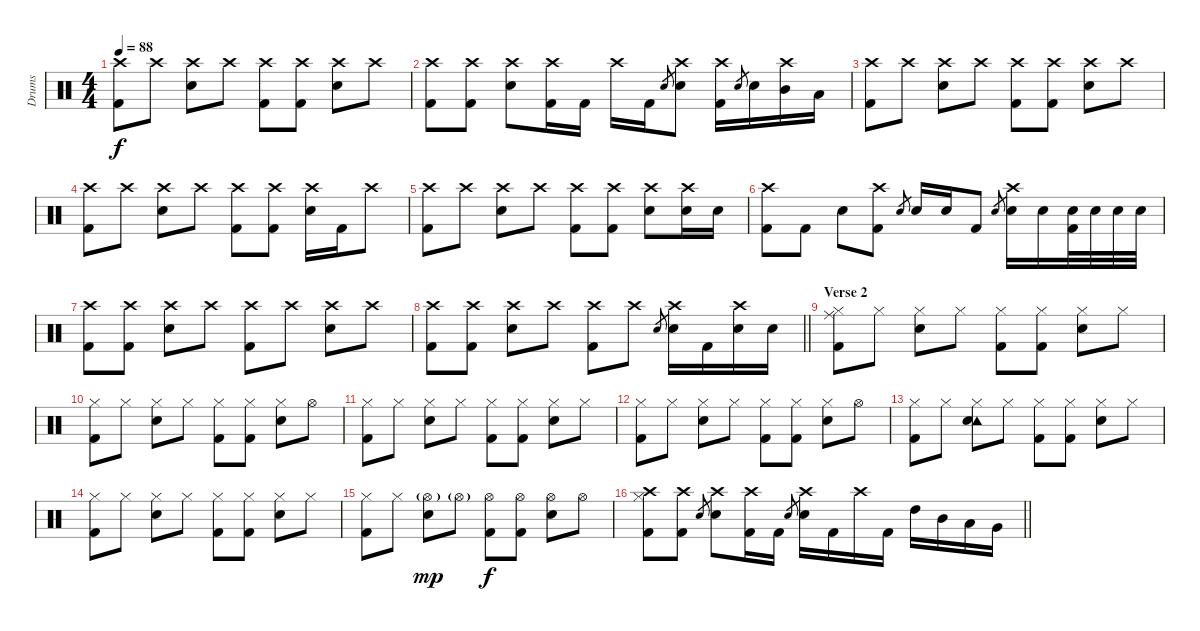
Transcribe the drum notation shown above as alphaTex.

\track ("Drums" "Drums") {instrument percussion}
\staff {score}
\articulation defaults
\ts (4 4)
\tempo 88
\clef neutral
\ks c
("Crash high (hit)" "Kick (hit) 2").8{dy f} "Crash high (hit)".8 ("Crash high (hit)" "Electric Snare (hit)").8 "Crash high (hit)".8 ("Crash high (hit)" "Kick (hit) 2").8 ("Crash high (hit)" "Kick (hit) 2").8 ("Crash high (hit)" "Electric Snare (hit)").8 "Crash high (hit)".8 |
("Crash high (hit)" "Kick (hit) 2").8 ("Crash high (hit)" "Kick (hit) 2").8 ("Crash high (hit)" "Electric Snare (hit)").8 ("Crash high (hit)" "Kick (hit) 2").16 "Kick (hit) 2".16 "Crash high (hit)".16 "Kick (hit) 2".16 "Electric Snare (hit)".8{gr} ("Crash high (hit)" "Electric Snare (hit)").8 ("Crash high (hit)" "Kick (hit) 2").16 "Electric Snare (hit)".8{gr} "Electric Snare (hit)".16 ("Crash high (hit)" "Mid Tom (hit)").16 "Low Tom (hit)".16 |
("Crash high (hit)" "Kick (hit) 2").8 "Crash high (hit)".8 ("Crash high (hit)" "Electric Snare (hit)").8 "Crash high (hit)".8 ("Crash high (hit)" "Kick (hit) 2").8 ("Crash high (hit)" "Kick (hit) 2").8 ("Crash high (hit)" "Electric Snare (hit)").8 "Crash high (hit)".8 |
("Crash high (hit)" "Kick (hit) 2").8 "Crash high (hit)".8 ("Crash high (hit)" "Electric Snare (hit)").8 "Crash high (hit)".8 ("Crash high (hit)" "Kick (hit) 2").8 ("Crash high (hit)" "Kick (hit) 2").8 ("Crash high (hit)" "Electric Snare (hit)").16 "Kick (hit) 2".16 "Crash high (hit)".8 |
("Crash high (hit)" "Kick (hit) 2").8 "Crash high (hit)".8 ("Crash high (hit)" "Electric Snare (hit)").8 "Crash high (hit)".8 ("Crash high (hit)" "Kick (hit) 2").8 ("Crash high (hit)" "Kick (hit) 2").8 ("Crash high (hit)" "Electric Snare (hit)").8 ("Crash high (hit)" "Electric Snare (hit)").16 "Electric Snare (hit)".16 |
("Crash high (hit)" "Kick (hit) 2").8 "Kick (hit) 2".8 "Electric Snare (hit)".8 ("Crash high (hit)" "Kick (hit) 2").8 "Electric Snare (hit)".8{gr} "Electric Snare (hit)".16 "Electric Snare (hit)".16 "Kick (hit) 2".8 "Electric Snare (hit)".8{gr} ("Crash high (hit)" "Electric Snare (hit)").16 "Electric Snare (hit)".16 ("Electric Snare (hit)" "Kick (hit) 2").32 "Electric Snare (hit)".32 "Electric Snare (hit)".32 "Electric Snare (hit)".32 |
("Crash high (hit)" "Kick (hit) 2").8 ("Crash high (hit)" "Kick (hit) 2").8 ("Crash high (hit)" "Electric Snare (hit)").8 "Crash high (hit)".8 ("Crash high (hit)" "Kick (hit) 2").8 "Crash high (hit)".8 ("Crash high (hit)" "Electric Snare (hit)").8 "Crash high (hit)".8 |
\barLineRight lightlight
("Crash high (hit)" "Kick (hit) 2").8 ("Crash high (hit)" "Kick (hit) 2").8 ("Crash high (hit)" "Electric Snare (hit)").8 "Crash high (hit)".8 ("Crash high (hit)" "Kick (hit) 2").8 "Crash high (hit)".8 "Electric Snare (hit)".8{gr} ("Crash high (hit)" "Electric Snare (hit)").16 "Kick (hit) 2".16 ("Crash high (hit)" "Electric Snare (hit)").16 "Electric Snare (hit)".16 |
\section ("" "Verse 2")
("Ride (middle)" "Hi-Hat (closed)" "Kick (hit) 2").8 "Hi-Hat (closed)".8 ("Hi-Hat (closed)" "Electric Snare (hit)").8 "Hi-Hat (closed)".8 ("Hi-Hat (closed)" "Kick (hit) 2").8 ("Hi-Hat (closed)" "Kick (hit) 2").8 ("Hi-Hat (closed)" "Electric Snare (hit)").8 "Hi-Hat (closed)".8 |
("Hi-Hat (closed)" "Kick (hit) 2").8 "Hi-Hat (closed)".8 ("Hi-Hat (closed)" "Electric Snare (hit)").8 "Hi-Hat (closed)".8 ("Hi-Hat (closed)" "Kick (hit) 2").8 ("Hi-Hat (closed)" "Kick (hit) 2").8 ("Hi-Hat (closed)" "Electric Snare (hit)").8 "Hi-Hat (open)".8 |
("Hi-Hat (closed)" "Kick (hit) 2").8 "Hi-Hat (closed)".8 ("Hi-Hat (closed)" "Electric Snare (hit)").8 "Hi-Hat (closed)".8 ("Hi-Hat (closed)" "Kick (hit) 2").8 ("Hi-Hat (closed)" "Kick (hit) 2").8 ("Hi-Hat (closed)" "Electric Snare (hit)").8 "Hi-Hat (closed)".8 |
("Hi-Hat (closed)" "Kick (hit) 2").8 "Hi-Hat (closed)".8 ("Hi-Hat (closed)" "Electric Snare (hit)").8 "Hi-Hat (closed)".8 ("Hi-Hat (closed)" "Kick (hit) 2").8 ("Hi-Hat (closed)" "Kick (hit) 2").8 ("Hi-Hat (closed)" "Electric Snare (hit)").8 "Hi-Hat (open)".8 |
("Hi-Hat (closed)" "Kick (hit) 2").8 "Hi-Hat (closed)".8 ("Tambourine (hit)" "Hi-Hat (closed)" "Electric Snare (hit)").8 "Hi-Hat (closed)".8 ("Hi-Hat (closed)" "Kick (hit) 2").8 ("Hi-Hat (closed)" "Kick (hit) 2").8 ("Hi-Hat (closed)" "Electric Snare (hit)").8 "Hi-Hat (closed)".8 |
("Hi-Hat (closed)" "Kick (hit) 2").8 "Hi-Hat (closed)".8 ("Hi-Hat (closed)" "Electric Snare (hit)").8 "Hi-Hat (closed)".8 ("Hi-Hat (closed)" "Kick (hit) 2").8 ("Hi-Hat (closed)" "Kick (hit) 2").8 ("Hi-Hat (closed)" "Electric Snare (hit)").8 "Hi-Hat (closed)".8 |
("Hi-Hat (closed)" "Kick (hit) 2").8 "Hi-Hat (closed)".8 ("Hi-Hat (open)"{g} "Electric Snare (hit)").8{dy mp} "Hi-Hat (open)"{g}.8 ("Hi-Hat (open)" "Kick (hit) 2").8{dy f} ("Hi-Hat (open)" "Kick (hit) 2").8 ("Hi-Hat (open)" "Electric Snare (hit)").8 "Hi-Hat (open)".8 |
\barLineRight lightlight
("Crash high (hit)" "Hi-Hat (closed)" "Kick (hit) 2").8 ("Crash high (hit)" "Kick (hit) 2").8 "Electric Snare (hit)".8{gr} ("Crash high (hit)" "Electric Snare (hit)").8 ("Crash high (hit)" "Kick (hit) 2").16 "Kick (hit) 2".16 "Electric Snare (hit)".8{gr} ("Crash high (hit)" "Electric Snare (hit)").16 "Kick (hit) 2".16 "Crash high (hit)".16 "Kick (hit) 2".16 "High Tom (hit)".16 "Mid Tom (hit)".16 "Low Tom (hit)".16 "Very Low Tom (hit)".16
